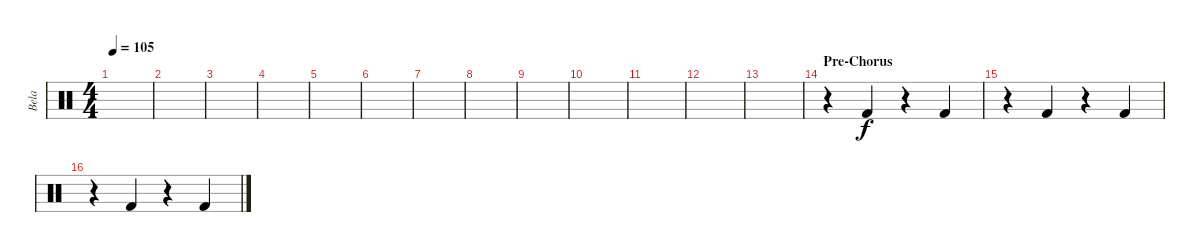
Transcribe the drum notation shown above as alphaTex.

\track ("Bela" "Bela") {instrument percussion}
\staff {score}
\articulation defaults
\ts (4 4)
\tempo 105
\clef neutral
\ks c
|
|
|
|
|
|
|
|
|
|
|
|
|
\section ("" "Pre-Chorus")
r.4 "Kick (hit) 2".4 r.4 "Kick (hit) 2".4 |
r.4 "Kick (hit) 2".4 r.4 "Kick (hit) 2".4 |
r.4 "Kick (hit) 2".4 r.4 "Kick (hit) 2".4
